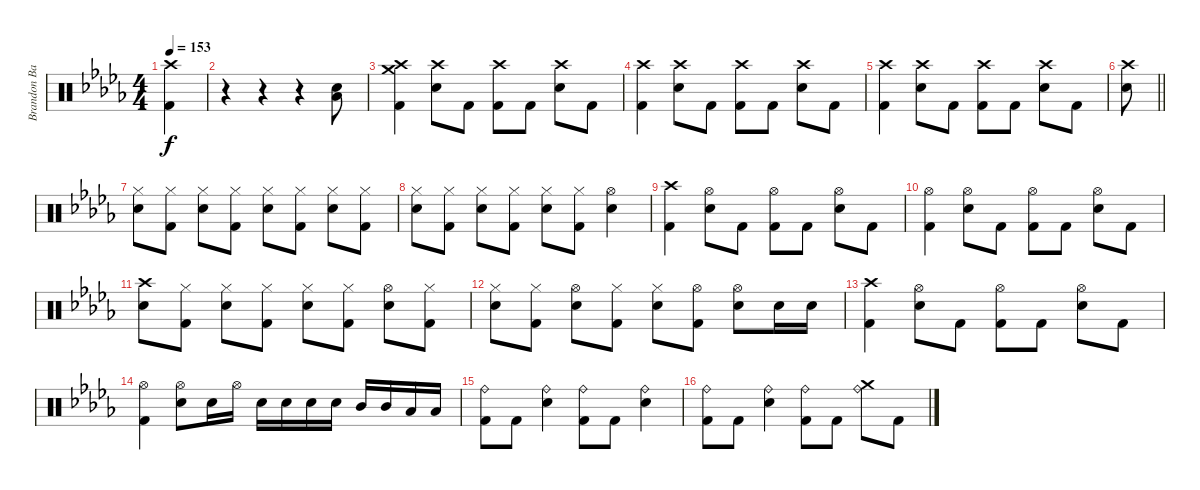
\track ("Brandon Barnes" "Brandon Ba") {instrument percussion}
\staff {score}
\articulation defaults
\ts (4 4)
\tempo 153
\clef neutral
\ks db
("Crash high (hit)" "Kick (hit) 2").4{dy f} |
r.4 r.4 r.4 ("Low Floor Tom (hit)" "Snare (hit) 2").8 |
("Crash high (hit)" "Crash medium (hit)" "Kick (hit) 2").4 ("Crash high (hit)" "Snare (hit) 2").8 "Kick (hit) 2".8 ("Crash high (hit)" "Kick (hit) 2").8 "Kick (hit) 2".8 ("Crash high (hit)" "Snare (hit) 2").8 "Kick (hit) 2".8 |
("Crash high (hit)" "Kick (hit) 2").4 ("Crash high (hit)" "Snare (hit) 2").8 "Kick (hit) 2".8 ("Crash high (hit)" "Kick (hit) 2").8 "Kick (hit) 2".8 ("Crash high (hit)" "Snare (hit) 2").8 "Kick (hit) 2".8 |
("Crash high (hit)" "Kick (hit) 2").4 ("Crash high (hit)" "Snare (hit) 2").8 "Kick (hit) 2".8 ("Crash high (hit)" "Kick (hit) 2").8 "Kick (hit) 2".8 ("Crash high (hit)" "Snare (hit) 2").8 "Kick (hit) 2".8 |
\barLineRight lightlight
("Crash high (hit)" "Snare (hit) 2").8 |
("Hi-Hat (closed)" "Snare (hit) 2").8 ("Hi-Hat (closed)" "Kick (hit) 2").8 ("Hi-Hat (closed)" "Snare (hit) 2").8 ("Hi-Hat (closed)" "Kick (hit) 2").8 ("Hi-Hat (closed)" "Snare (hit) 2").8 ("Hi-Hat (closed)" "Kick (hit) 2").8 ("Hi-Hat (closed)" "Snare (hit) 2").8 ("Hi-Hat (closed)" "Kick (hit) 2").8 |
("Hi-Hat (closed)" "Snare (hit) 2").8 ("Hi-Hat (closed)" "Kick (hit) 2").8 ("Hi-Hat (closed)" "Snare (hit) 2").8 ("Hi-Hat (closed)" "Kick (hit) 2").8 ("Hi-Hat (closed)" "Snare (hit) 2").8 ("Hi-Hat (closed)" "Kick (hit) 2").8 ("Hi-Hat (open)" "Snare (hit) 2").4 |
("Crash high (hit)" "Kick (hit) 2").4 ("Hi-Hat (open)" "Snare (hit) 2").8 "Kick (hit) 2".8 ("Hi-Hat (open)" "Kick (hit) 2").8 "Kick (hit) 2".8 ("Hi-Hat (open)" "Snare (hit) 2").8 "Kick (hit) 2".8 |
("Hi-Hat (open)" "Kick (hit) 2").4 ("Hi-Hat (open)" "Snare (hit) 2").8 "Kick (hit) 2".8 ("Hi-Hat (open)" "Kick (hit) 2").8 "Kick (hit) 2".8 ("Hi-Hat (open)" "Snare (hit) 2").8 "Kick (hit) 2".8 |
("Crash high (hit)" "Snare (hit) 2").8 ("Hi-Hat (closed)" "Kick (hit) 2").8 ("Hi-Hat (closed)" "Snare (hit) 2").8 ("Hi-Hat (closed)" "Kick (hit) 2").8 ("Hi-Hat (closed)" "Snare (hit) 2").8 ("Hi-Hat (closed)" "Kick (hit) 2").8 ("Hi-Hat (open)" "Snare (hit) 2").8 ("Hi-Hat (closed)" "Kick (hit) 2").8 |
("Hi-Hat (closed)" "Snare (hit) 2").8 ("Hi-Hat (closed)" "Kick (hit) 2").8 ("Hi-Hat (open)" "Snare (hit) 2").8 ("Hi-Hat (closed)" "Kick (hit) 2").8 ("Hi-Hat (closed)" "Snare (hit) 2").8 ("Hi-Hat (open)" "Kick (hit) 2").8 ("Hi-Hat (open)" "Snare (hit) 2").8 "Snare (hit) 2".16 "Snare (hit) 2".16 |
("Crash high (hit)" "Kick (hit) 2").4 ("Hi-Hat (open)" "Snare (hit) 2").8 "Kick (hit) 2".8 ("Hi-Hat (open)" "Kick (hit) 2").8 "Kick (hit) 2".8 ("Hi-Hat (open)" "Snare (hit) 2").8 "Kick (hit) 2".8 |
("Hi-Hat (open)" "Kick (hit) 2").4 ("Hi-Hat (open)" "Snare (hit) 2").8 "Snare (hit) 2".16 "Hi-Hat (open)".16 "Snare (hit) 2".16 "Snare (hit) 2".16 "Snare (hit) 2".16 "Snare (hit) 2".16 "Mid Tom (hit)".16 "Mid Tom (hit)".16 "Low Floor Tom (hit)".16 "Low Floor Tom (hit)".16 |
("Ride (bell)" "Kick (hit) 2").8 "Kick (hit) 2".8 ("Ride (bell)" "Snare (hit) 2").4 ("Ride (bell)" "Kick (hit) 2").8 "Kick (hit) 2".8 ("Ride (bell)" "Snare (hit) 2").4 |
("Ride (bell)" "Kick (hit) 2").8 "Kick (hit) 2".8 ("Ride (bell)" "Snare (hit) 2").4 ("Ride (bell)" "Kick (hit) 2").8 "Kick (hit) 2".8 ("Ride (bell)" "Crash medium (hit)").8 "Kick (hit) 2".8
